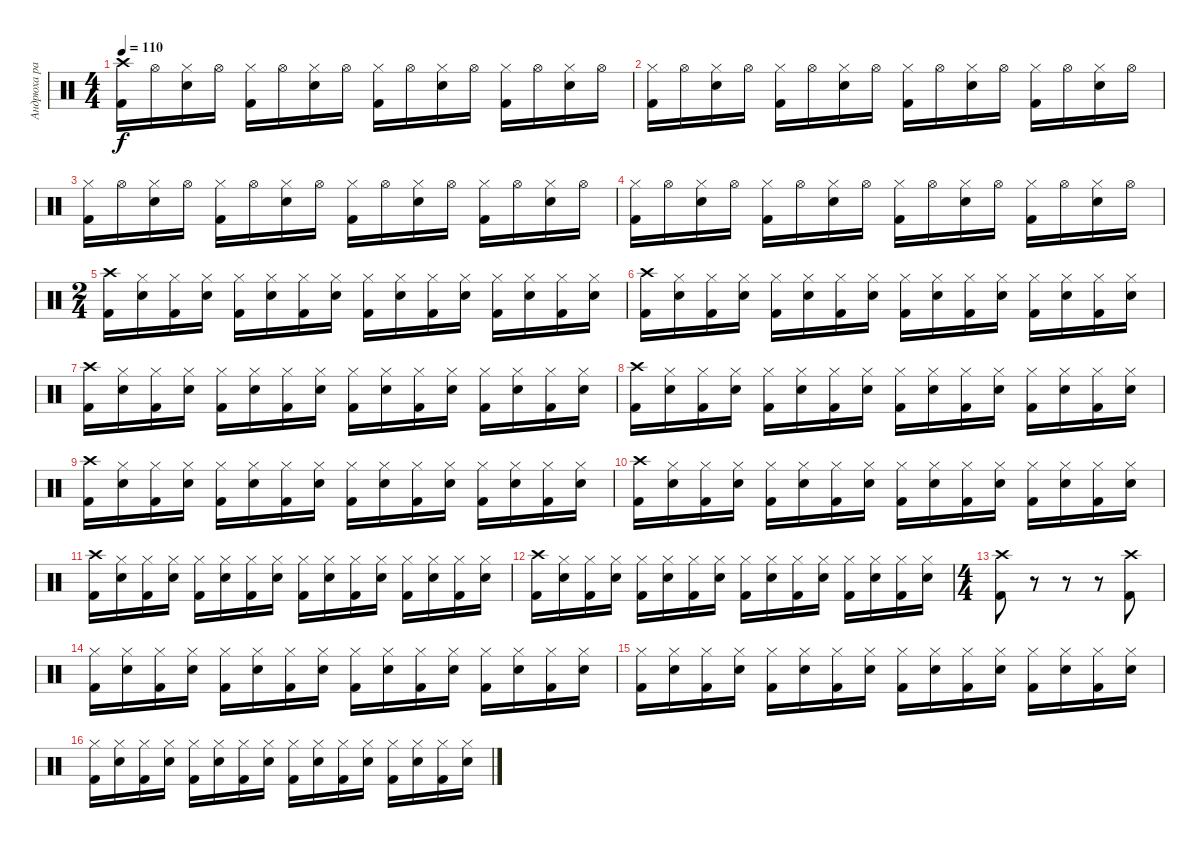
\track ("Андрюха радостный" "Андрюха ра") {instrument percussion}
\staff {score}
\articulation defaults
\ts (4 4)
\tempo 110
\clef neutral
\ks c
("Crash high (hit)" "Kick (hit) 2").16{dy f} "Hi-Hat (open)".16 ("Hi-Hat (closed)" "Electric Snare (hit)").16 "Hi-Hat (open)".16 ("Hi-Hat (closed)" "Kick (hit) 2").16 "Hi-Hat (open)".16 ("Hi-Hat (closed)" "Electric Snare (hit)").16 "Hi-Hat (open)".16 ("Hi-Hat (closed)" "Kick (hit) 2").16 "Hi-Hat (open)".16 ("Hi-Hat (closed)" "Electric Snare (hit)").16 "Hi-Hat (open)".16 ("Hi-Hat (closed)" "Kick (hit) 2").16 "Hi-Hat (open)".16 ("Hi-Hat (closed)" "Electric Snare (hit)").16 "Hi-Hat (open)".16 |
("Hi-Hat (closed)" "Kick (hit) 2").16 "Hi-Hat (open)".16 ("Hi-Hat (closed)" "Electric Snare (hit)").16 "Hi-Hat (open)".16 ("Hi-Hat (closed)" "Kick (hit) 2").16 "Hi-Hat (open)".16 ("Hi-Hat (closed)" "Electric Snare (hit)").16 "Hi-Hat (open)".16 ("Hi-Hat (closed)" "Kick (hit) 2").16 "Hi-Hat (open)".16 ("Hi-Hat (closed)" "Electric Snare (hit)").16 "Hi-Hat (open)".16 ("Hi-Hat (closed)" "Kick (hit) 2").16 "Hi-Hat (open)".16 ("Hi-Hat (closed)" "Electric Snare (hit)").16 "Hi-Hat (open)".16 |
("Hi-Hat (closed)" "Kick (hit) 2").16 "Hi-Hat (open)".16 ("Hi-Hat (closed)" "Electric Snare (hit)").16 "Hi-Hat (open)".16 ("Hi-Hat (closed)" "Kick (hit) 2").16 "Hi-Hat (open)".16 ("Hi-Hat (closed)" "Electric Snare (hit)").16 "Hi-Hat (open)".16 ("Hi-Hat (closed)" "Kick (hit) 2").16 "Hi-Hat (open)".16 ("Hi-Hat (closed)" "Electric Snare (hit)").16 "Hi-Hat (open)".16 ("Hi-Hat (closed)" "Kick (hit) 2").16 "Hi-Hat (open)".16 ("Hi-Hat (closed)" "Electric Snare (hit)").16 "Hi-Hat (open)".16 |
("Hi-Hat (closed)" "Kick (hit) 2").16 "Hi-Hat (open)".16 ("Hi-Hat (closed)" "Electric Snare (hit)").16 "Hi-Hat (open)".16 ("Hi-Hat (closed)" "Kick (hit) 2").16 "Hi-Hat (open)".16 ("Hi-Hat (closed)" "Electric Snare (hit)").16 "Hi-Hat (open)".16 ("Hi-Hat (closed)" "Kick (hit) 2").16 "Hi-Hat (open)".16 ("Hi-Hat (closed)" "Electric Snare (hit)").16 "Hi-Hat (open)".16 ("Hi-Hat (closed)" "Kick (hit) 2").16 "Hi-Hat (open)".16 ("Hi-Hat (closed)" "Electric Snare (hit)").16 "Hi-Hat (open)".16 |
\ts (2 4)
("Crash high (hit)" "Kick (hit) 2").16 ("Hi-Hat (closed)" "Electric Snare (hit)").16 ("Hi-Hat (closed)" "Kick (hit) 2").16 ("Hi-Hat (closed)" "Electric Snare (hit)").16 ("Hi-Hat (closed)" "Kick (hit) 2").16 ("Hi-Hat (closed)" "Electric Snare (hit)").16 ("Hi-Hat (closed)" "Kick (hit) 2").16 ("Hi-Hat (closed)" "Electric Snare (hit)").16 ("Hi-Hat (closed)" "Kick (hit) 2").16 ("Hi-Hat (closed)" "Electric Snare (hit)").16 ("Hi-Hat (closed)" "Kick (hit) 2").16 ("Hi-Hat (closed)" "Electric Snare (hit)").16 ("Hi-Hat (closed)" "Kick (hit) 2").16 ("Hi-Hat (closed)" "Electric Snare (hit)").16 ("Hi-Hat (closed)" "Kick (hit) 2").16 ("Hi-Hat (closed)" "Electric Snare (hit)").16 |
("Crash high (hit)" "Kick (hit) 2").16 ("Hi-Hat (closed)" "Electric Snare (hit)").16 ("Hi-Hat (closed)" "Kick (hit) 2").16 ("Hi-Hat (closed)" "Electric Snare (hit)").16 ("Hi-Hat (closed)" "Kick (hit) 2").16 ("Hi-Hat (closed)" "Electric Snare (hit)").16 ("Hi-Hat (closed)" "Kick (hit) 2").16 ("Hi-Hat (closed)" "Electric Snare (hit)").16 ("Hi-Hat (closed)" "Kick (hit) 2").16 ("Hi-Hat (closed)" "Electric Snare (hit)").16 ("Hi-Hat (closed)" "Kick (hit) 2").16 ("Hi-Hat (closed)" "Electric Snare (hit)").16 ("Hi-Hat (closed)" "Kick (hit) 2").16 ("Hi-Hat (closed)" "Electric Snare (hit)").16 ("Hi-Hat (closed)" "Kick (hit) 2").16 ("Hi-Hat (closed)" "Electric Snare (hit)").16 |
("Crash high (hit)" "Kick (hit) 2").16 ("Hi-Hat (closed)" "Electric Snare (hit)").16 ("Hi-Hat (closed)" "Kick (hit) 2").16 ("Hi-Hat (closed)" "Electric Snare (hit)").16 ("Hi-Hat (closed)" "Kick (hit) 2").16 ("Hi-Hat (closed)" "Electric Snare (hit)").16 ("Hi-Hat (closed)" "Kick (hit) 2").16 ("Hi-Hat (closed)" "Electric Snare (hit)").16 ("Hi-Hat (closed)" "Kick (hit) 2").16 ("Hi-Hat (closed)" "Electric Snare (hit)").16 ("Hi-Hat (closed)" "Kick (hit) 2").16 ("Hi-Hat (closed)" "Electric Snare (hit)").16 ("Hi-Hat (closed)" "Kick (hit) 2").16 ("Hi-Hat (closed)" "Electric Snare (hit)").16 ("Hi-Hat (closed)" "Kick (hit) 2").16 ("Hi-Hat (closed)" "Electric Snare (hit)").16 |
("Crash high (hit)" "Kick (hit) 2").16 ("Hi-Hat (closed)" "Electric Snare (hit)").16 ("Hi-Hat (closed)" "Kick (hit) 2").16 ("Hi-Hat (closed)" "Electric Snare (hit)").16 ("Hi-Hat (closed)" "Kick (hit) 2").16 ("Hi-Hat (closed)" "Electric Snare (hit)").16 ("Hi-Hat (closed)" "Kick (hit) 2").16 ("Hi-Hat (closed)" "Electric Snare (hit)").16 ("Hi-Hat (closed)" "Kick (hit) 2").16 ("Hi-Hat (closed)" "Electric Snare (hit)").16 ("Hi-Hat (closed)" "Kick (hit) 2").16 ("Hi-Hat (closed)" "Electric Snare (hit)").16 ("Hi-Hat (closed)" "Kick (hit) 2").16 ("Hi-Hat (closed)" "Electric Snare (hit)").16 ("Hi-Hat (closed)" "Kick (hit) 2").16 ("Hi-Hat (closed)" "Electric Snare (hit)").16 |
("Crash high (hit)" "Kick (hit) 2").16 ("Hi-Hat (closed)" "Electric Snare (hit)").16 ("Hi-Hat (closed)" "Kick (hit) 2").16 ("Hi-Hat (closed)" "Electric Snare (hit)").16 ("Hi-Hat (closed)" "Kick (hit) 2").16 ("Hi-Hat (closed)" "Electric Snare (hit)").16 ("Hi-Hat (closed)" "Kick (hit) 2").16 ("Hi-Hat (closed)" "Electric Snare (hit)").16 ("Hi-Hat (closed)" "Kick (hit) 2").16 ("Hi-Hat (closed)" "Electric Snare (hit)").16 ("Hi-Hat (closed)" "Kick (hit) 2").16 ("Hi-Hat (closed)" "Electric Snare (hit)").16 ("Hi-Hat (closed)" "Kick (hit) 2").16 ("Hi-Hat (closed)" "Electric Snare (hit)").16 ("Hi-Hat (closed)" "Kick (hit) 2").16 ("Hi-Hat (closed)" "Electric Snare (hit)").16 |
("Crash high (hit)" "Kick (hit) 2").16 ("Hi-Hat (closed)" "Electric Snare (hit)").16 ("Hi-Hat (closed)" "Kick (hit) 2").16 ("Hi-Hat (closed)" "Electric Snare (hit)").16 ("Hi-Hat (closed)" "Kick (hit) 2").16 ("Hi-Hat (closed)" "Electric Snare (hit)").16 ("Hi-Hat (closed)" "Kick (hit) 2").16 ("Hi-Hat (closed)" "Electric Snare (hit)").16 ("Hi-Hat (closed)" "Kick (hit) 2").16 ("Hi-Hat (closed)" "Electric Snare (hit)").16 ("Hi-Hat (closed)" "Kick (hit) 2").16 ("Hi-Hat (closed)" "Electric Snare (hit)").16 ("Hi-Hat (closed)" "Kick (hit) 2").16 ("Hi-Hat (closed)" "Electric Snare (hit)").16 ("Hi-Hat (closed)" "Kick (hit) 2").16 ("Hi-Hat (closed)" "Electric Snare (hit)").16 |
("Crash high (hit)" "Kick (hit) 2").16 ("Hi-Hat (closed)" "Electric Snare (hit)").16 ("Hi-Hat (closed)" "Kick (hit) 2").16 ("Hi-Hat (closed)" "Electric Snare (hit)").16 ("Hi-Hat (closed)" "Kick (hit) 2").16 ("Hi-Hat (closed)" "Electric Snare (hit)").16 ("Hi-Hat (closed)" "Kick (hit) 2").16 ("Hi-Hat (closed)" "Electric Snare (hit)").16 ("Hi-Hat (closed)" "Kick (hit) 2").16 ("Hi-Hat (closed)" "Electric Snare (hit)").16 ("Hi-Hat (closed)" "Kick (hit) 2").16 ("Hi-Hat (closed)" "Electric Snare (hit)").16 ("Hi-Hat (closed)" "Kick (hit) 2").16 ("Hi-Hat (closed)" "Electric Snare (hit)").16 ("Hi-Hat (closed)" "Kick (hit) 2").16 ("Hi-Hat (closed)" "Electric Snare (hit)").16 |
("Crash high (hit)" "Kick (hit) 2").16 ("Hi-Hat (closed)" "Electric Snare (hit)").16 ("Hi-Hat (closed)" "Kick (hit) 2").16 ("Hi-Hat (closed)" "Electric Snare (hit)").16 ("Hi-Hat (closed)" "Kick (hit) 2").16 ("Hi-Hat (closed)" "Electric Snare (hit)").16 ("Hi-Hat (closed)" "Kick (hit) 2").16 ("Hi-Hat (closed)" "Electric Snare (hit)").16 ("Hi-Hat (closed)" "Kick (hit) 2").16 ("Hi-Hat (closed)" "Electric Snare (hit)").16 ("Hi-Hat (closed)" "Kick (hit) 2").16 ("Hi-Hat (closed)" "Electric Snare (hit)").16 ("Hi-Hat (closed)" "Kick (hit) 2").16 ("Hi-Hat (closed)" "Electric Snare (hit)").16 ("Hi-Hat (closed)" "Kick (hit) 2").16 ("Hi-Hat (closed)" "Electric Snare (hit)").16 |
\ts (4 4)
("Crash high (hit)" "Kick (hit) 2").8 r.8 r.8 r.8 ("Crash high (hit)" "Kick (hit) 2").8 |
("Hi-Hat (closed)" "Kick (hit) 2").16 ("Hi-Hat (closed)" "Electric Snare (hit)").16 ("Hi-Hat (closed)" "Kick (hit) 2").16 ("Hi-Hat (closed)" "Electric Snare (hit)").16 ("Hi-Hat (closed)" "Kick (hit) 2").16 ("Hi-Hat (closed)" "Electric Snare (hit)").16 ("Hi-Hat (closed)" "Kick (hit) 2").16 ("Hi-Hat (closed)" "Electric Snare (hit)").16 ("Hi-Hat (closed)" "Kick (hit) 2").16 ("Hi-Hat (closed)" "Electric Snare (hit)").16 ("Hi-Hat (closed)" "Kick (hit) 2").16 ("Hi-Hat (closed)" "Electric Snare (hit)").16 ("Hi-Hat (closed)" "Kick (hit) 2").16 ("Hi-Hat (closed)" "Electric Snare (hit)").16 ("Hi-Hat (closed)" "Kick (hit) 2").16 ("Hi-Hat (closed)" "Electric Snare (hit)").16 |
("Hi-Hat (closed)" "Kick (hit) 2").16 ("Hi-Hat (closed)" "Electric Snare (hit)").16 ("Hi-Hat (closed)" "Kick (hit) 2").16 ("Hi-Hat (closed)" "Electric Snare (hit)").16 ("Hi-Hat (closed)" "Kick (hit) 2").16 ("Hi-Hat (closed)" "Electric Snare (hit)").16 ("Hi-Hat (closed)" "Kick (hit) 2").16 ("Hi-Hat (closed)" "Electric Snare (hit)").16 ("Hi-Hat (closed)" "Kick (hit) 2").16 ("Hi-Hat (closed)" "Electric Snare (hit)").16 ("Hi-Hat (closed)" "Kick (hit) 2").16 ("Hi-Hat (closed)" "Electric Snare (hit)").16 ("Hi-Hat (closed)" "Kick (hit) 2").16 ("Hi-Hat (closed)" "Electric Snare (hit)").16 ("Hi-Hat (closed)" "Kick (hit) 2").16 ("Hi-Hat (closed)" "Electric Snare (hit)").16 |
("Hi-Hat (closed)" "Kick (hit) 2").16 ("Hi-Hat (closed)" "Electric Snare (hit)").16 ("Hi-Hat (closed)" "Kick (hit) 2").16 ("Hi-Hat (closed)" "Electric Snare (hit)").16 ("Hi-Hat (closed)" "Kick (hit) 2").16 ("Hi-Hat (closed)" "Electric Snare (hit)").16 ("Hi-Hat (closed)" "Kick (hit) 2").16 ("Hi-Hat (closed)" "Electric Snare (hit)").16 ("Hi-Hat (closed)" "Kick (hit) 2").16 ("Hi-Hat (closed)" "Electric Snare (hit)").16 ("Hi-Hat (closed)" "Kick (hit) 2").16 ("Hi-Hat (closed)" "Electric Snare (hit)").16 ("Hi-Hat (closed)" "Kick (hit) 2").16 ("Hi-Hat (closed)" "Electric Snare (hit)").16 ("Hi-Hat (closed)" "Kick (hit) 2").16 ("Hi-Hat (closed)" "Electric Snare (hit)").16
